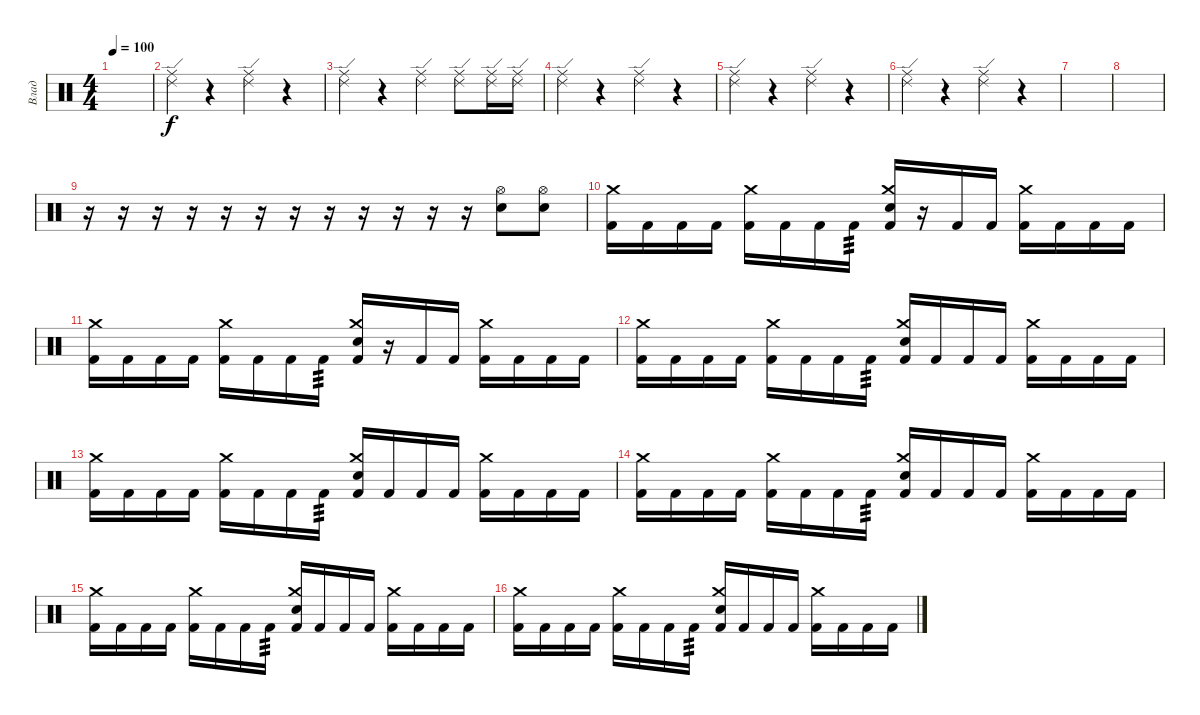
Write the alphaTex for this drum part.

\track ("Влад" "Влад") {instrument percussion}
\staff
\articulation defaults
\ts (4 4)
\tempo 100
\clef neutral
\ks c
|
("Ride (middle)" "Ride (edge) 2").4 r.4 ("Ride (middle)" "Ride (edge) 2").4 r.4 |
("Ride (middle)" "Ride (edge) 2").4 r.4 ("Ride (middle)" "Ride (edge) 2").4 ("Ride (middle)" "Ride (edge) 2").8 ("Ride (middle)" "Ride (edge) 2").16 ("Ride (middle)" "Ride (edge) 2").16 |
("Ride (middle)" "Ride (edge) 2").4 r.4 ("Ride (middle)" "Ride (edge) 2").4 r.4 |
("Ride (middle)" "Ride (edge) 2").4 r.4 ("Ride (middle)" "Ride (edge) 2").4 r.4 |
("Ride (middle)" "Ride (edge) 2").4 r.4 ("Ride (middle)" "Ride (edge) 2").4 r.4 |
|
|
r.16 r.16 r.16 r.16 r.16 r.16 r.16 r.16 r.16 r.16 r.16 r.16 ("Hi-Hat (open)" "Snare (hit) 2").8 ("Hi-Hat (open)" "Snare (hit) 2").8 |
("Crash medium (hit)" "Kick (hit) 2").16 "Kick (hit) 2".16 "Kick (hit) 2".16 "Kick (hit) 2".16 ("Crash medium (hit)" "Kick (hit) 2").16 "Kick (hit) 2".16 "Kick (hit) 2".16 "Kick (hit) 2".16{tp 3} ("Crash medium (hit)" "Snare (hit) 2" "Kick (hit) 2").16 r.16 "Kick (hit) 2".16 "Kick (hit) 2".16 ("Crash medium (hit)" "Kick (hit) 2").16 "Kick (hit) 2".16 "Kick (hit) 2".16 "Kick (hit) 2".16 |
("Crash medium (hit)" "Kick (hit) 2").16 "Kick (hit) 2".16 "Kick (hit) 2".16 "Kick (hit) 2".16 ("Crash medium (hit)" "Kick (hit) 2").16 "Kick (hit) 2".16 "Kick (hit) 2".16 "Kick (hit) 2".16{tp 3} ("Crash medium (hit)" "Snare (hit) 2" "Kick (hit) 2").16 r.16 "Kick (hit) 2".16 "Kick (hit) 2".16 ("Crash medium (hit)" "Kick (hit) 2").16 "Kick (hit) 2".16 "Kick (hit) 2".16 "Kick (hit) 2".16 |
("Crash medium (hit)" "Kick (hit) 2").16 "Kick (hit) 2".16 "Kick (hit) 2".16 "Kick (hit) 2".16 ("Crash medium (hit)" "Kick (hit) 2").16 "Kick (hit) 2".16 "Kick (hit) 2".16 "Kick (hit) 2".16{tp 3} ("Crash medium (hit)" "Snare (hit) 2" "Kick (hit) 2").16 "Kick (hit) 2".16 "Kick (hit) 2".16 "Kick (hit) 2".16 ("Crash medium (hit)" "Kick (hit) 2").16 "Kick (hit) 2".16 "Kick (hit) 2".16 "Kick (hit) 2".16 |
("Crash medium (hit)" "Kick (hit) 2").16 "Kick (hit) 2".16 "Kick (hit) 2".16 "Kick (hit) 2".16 ("Crash medium (hit)" "Kick (hit) 2").16 "Kick (hit) 2".16 "Kick (hit) 2".16 "Kick (hit) 2".16{tp 3} ("Crash medium (hit)" "Snare (hit) 2" "Kick (hit) 2").16 "Kick (hit) 2".16 "Kick (hit) 2".16 "Kick (hit) 2".16 ("Crash medium (hit)" "Kick (hit) 2").16 "Kick (hit) 2".16 "Kick (hit) 2".16 "Kick (hit) 2".16 |
("Crash medium (hit)" "Kick (hit) 2").16 "Kick (hit) 2".16 "Kick (hit) 2".16 "Kick (hit) 2".16 ("Crash medium (hit)" "Kick (hit) 2").16 "Kick (hit) 2".16 "Kick (hit) 2".16 "Kick (hit) 2".16{tp 3} ("Crash medium (hit)" "Snare (hit) 2" "Kick (hit) 2").16 "Kick (hit) 2".16 "Kick (hit) 2".16 "Kick (hit) 2".16 ("Crash medium (hit)" "Kick (hit) 2").16 "Kick (hit) 2".16 "Kick (hit) 2".16 "Kick (hit) 2".16 |
("Crash medium (hit)" "Kick (hit) 2").16 "Kick (hit) 2".16 "Kick (hit) 2".16 "Kick (hit) 2".16 ("Crash medium (hit)" "Kick (hit) 2").16 "Kick (hit) 2".16 "Kick (hit) 2".16 "Kick (hit) 2".16{tp 3} ("Crash medium (hit)" "Snare (hit) 2" "Kick (hit) 2").16 "Kick (hit) 2".16 "Kick (hit) 2".16 "Kick (hit) 2".16 ("Crash medium (hit)" "Kick (hit) 2").16 "Kick (hit) 2".16 "Kick (hit) 2".16 "Kick (hit) 2".16 |
("Crash medium (hit)" "Kick (hit) 2").16 "Kick (hit) 2".16 "Kick (hit) 2".16 "Kick (hit) 2".16 ("Crash medium (hit)" "Kick (hit) 2").16 "Kick (hit) 2".16 "Kick (hit) 2".16 "Kick (hit) 2".16{tp 3} ("Crash medium (hit)" "Snare (hit) 2" "Kick (hit) 2").16 "Kick (hit) 2".16 "Kick (hit) 2".16 "Kick (hit) 2".16 ("Crash medium (hit)" "Kick (hit) 2").16 "Kick (hit) 2".16 "Kick (hit) 2".16 "Kick (hit) 2".16
